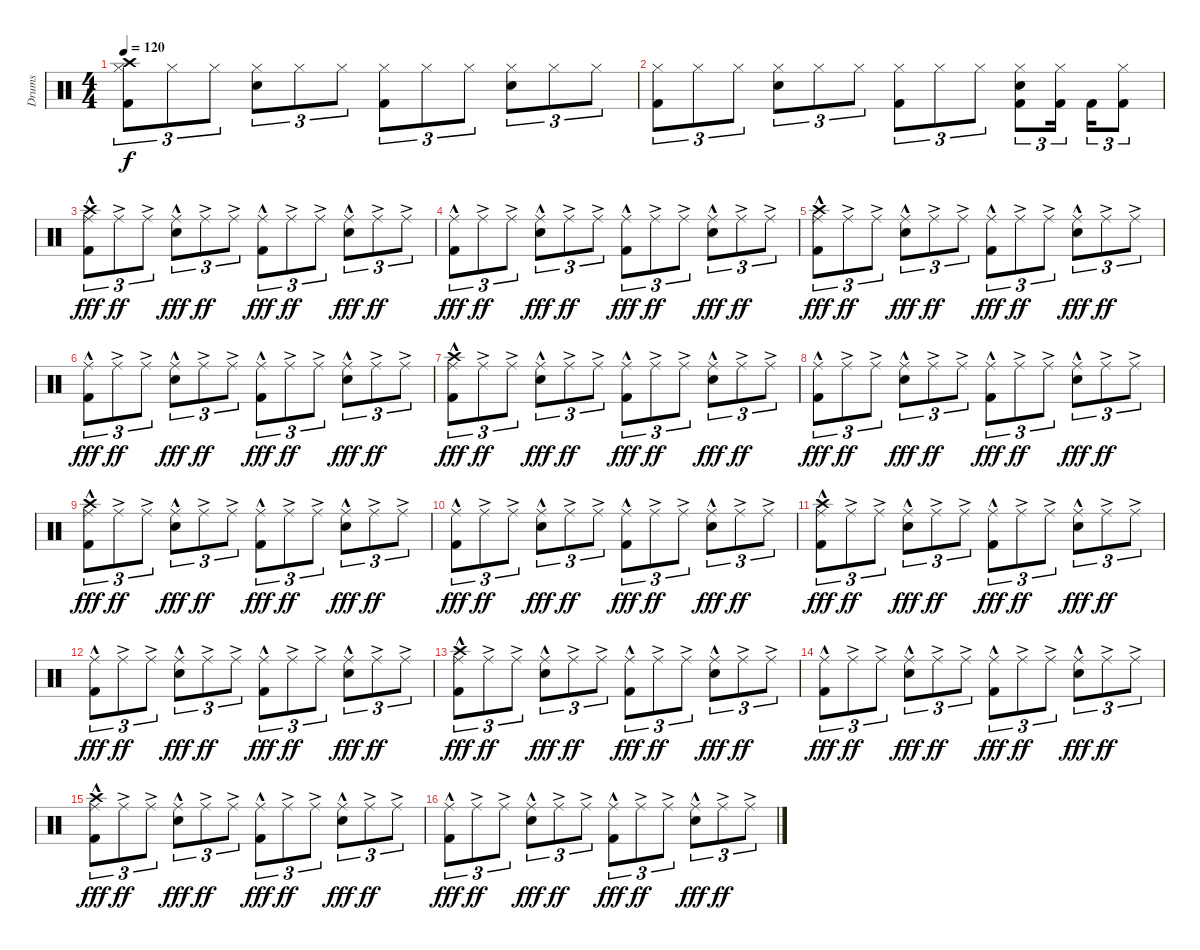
\track ("Drums" "Drums") {instrument percussion}
\staff {score}
\articulation defaults
\ts (4 4)
\tempo 120
\clef neutral
\ks c
("Kick (hit) 2" "Crash high (hit)" "Hi-Hat (closed)").8{tu (3 2) dy f} "Hi-Hat (closed)".8{tu (3 2)} "Hi-Hat (closed)".8{tu (3 2)} ("Snare (hit) 2" "Hi-Hat (closed)").8{tu (3 2)} "Hi-Hat (closed)".8{tu (3 2)} "Hi-Hat (closed)".8{tu (3 2)} ("Kick (hit) 2" "Hi-Hat (closed)").8{tu (3 2)} "Hi-Hat (closed)".8{tu (3 2)} "Hi-Hat (closed)".8{tu (3 2)} ("Snare (hit) 2" "Hi-Hat (closed)").8{tu (3 2)} "Hi-Hat (closed)".8{tu (3 2)} "Hi-Hat (closed)".8{tu (3 2)} |
("Kick (hit) 2" "Hi-Hat (closed)").8{tu (3 2)} "Hi-Hat (closed)".8{tu (3 2)} "Hi-Hat (closed)".8{tu (3 2)} ("Snare (hit) 2" "Hi-Hat (closed)").8{tu (3 2)} "Hi-Hat (closed)".8{tu (3 2)} "Hi-Hat (closed)".8{tu (3 2)} ("Kick (hit) 2" "Hi-Hat (closed)").8{tu (3 2)} "Hi-Hat (closed)".8{tu (3 2)} "Hi-Hat (closed)".8{tu (3 2)} ("Kick (hit) 2" "Snare (hit) 2" "Hi-Hat (closed)").8{tu (3 2)} ("Kick (hit) 2" "Hi-Hat (closed)").16{tu (3 2) beam splitsecondary} "Kick (hit) 2".16{tu (3 2)} ("Kick (hit) 2" "Hi-Hat (closed)").8{tu (3 2)} |
("Kick (hit) 2" "Crash high (hit)" "Ride (middle)"{hac}).8{tu (3 2) dy fff} "Ride (middle)"{ac}.8{tu (3 2) dy ff} "Ride (middle)"{ac}.8{tu (3 2)} ("Snare (hit) 2" "Ride (middle)"{hac}).8{tu (3 2) dy fff} "Ride (middle)"{ac}.8{tu (3 2) dy ff} "Ride (middle)"{ac}.8{tu (3 2)} ("Kick (hit) 2" "Ride (middle)"{hac}).8{tu (3 2) dy fff} "Ride (middle)"{ac}.8{tu (3 2) dy ff} "Ride (middle)"{ac}.8{tu (3 2)} ("Snare (hit) 2" "Ride (middle)"{hac}).8{tu (3 2) dy fff} "Ride (middle)"{ac}.8{tu (3 2) dy ff} "Ride (middle)"{ac}.8{tu (3 2)} |
("Kick (hit) 2" "Ride (middle)"{hac}).8{tu (3 2) dy fff} "Ride (middle)"{ac}.8{tu (3 2) dy ff} "Ride (middle)"{ac}.8{tu (3 2)} ("Snare (hit) 2" "Ride (middle)"{hac}).8{tu (3 2) dy fff} "Ride (middle)"{ac}.8{tu (3 2) dy ff} "Ride (middle)"{ac}.8{tu (3 2)} ("Kick (hit) 2" "Ride (middle)"{hac}).8{tu (3 2) dy fff} "Ride (middle)"{ac}.8{tu (3 2) dy ff} "Ride (middle)"{ac}.8{tu (3 2)} ("Snare (hit) 2" "Ride (middle)"{hac}).8{tu (3 2) dy fff} "Ride (middle)"{ac}.8{tu (3 2) dy ff} "Ride (middle)"{ac}.8{tu (3 2)} |
("Kick (hit) 2" "Crash high (hit)" "Ride (middle)"{hac}).8{tu (3 2) dy fff} "Ride (middle)"{ac}.8{tu (3 2) dy ff} "Ride (middle)"{ac}.8{tu (3 2)} ("Snare (hit) 2" "Ride (middle)"{hac}).8{tu (3 2) dy fff} "Ride (middle)"{ac}.8{tu (3 2) dy ff} "Ride (middle)"{ac}.8{tu (3 2)} ("Kick (hit) 2" "Ride (middle)"{hac}).8{tu (3 2) dy fff} "Ride (middle)"{ac}.8{tu (3 2) dy ff} "Ride (middle)"{ac}.8{tu (3 2)} ("Snare (hit) 2" "Ride (middle)"{hac}).8{tu (3 2) dy fff} "Ride (middle)"{ac}.8{tu (3 2) dy ff} "Ride (middle)"{ac}.8{tu (3 2)} |
("Kick (hit) 2" "Ride (middle)"{hac}).8{tu (3 2) dy fff} "Ride (middle)"{ac}.8{tu (3 2) dy ff} "Ride (middle)"{ac}.8{tu (3 2)} ("Snare (hit) 2" "Ride (middle)"{hac}).8{tu (3 2) dy fff} "Ride (middle)"{ac}.8{tu (3 2) dy ff} "Ride (middle)"{ac}.8{tu (3 2)} ("Kick (hit) 2" "Ride (middle)"{hac}).8{tu (3 2) dy fff} "Ride (middle)"{ac}.8{tu (3 2) dy ff} "Ride (middle)"{ac}.8{tu (3 2)} ("Snare (hit) 2" "Ride (middle)"{hac}).8{tu (3 2) dy fff} "Ride (middle)"{ac}.8{tu (3 2) dy ff} "Ride (middle)"{ac}.8{tu (3 2)} |
("Kick (hit) 2" "Crash high (hit)" "Ride (middle)"{hac}).8{tu (3 2) dy fff} "Ride (middle)"{ac}.8{tu (3 2) dy ff} "Ride (middle)"{ac}.8{tu (3 2)} ("Snare (hit) 2" "Ride (middle)"{hac}).8{tu (3 2) dy fff} "Ride (middle)"{ac}.8{tu (3 2) dy ff} "Ride (middle)"{ac}.8{tu (3 2)} ("Kick (hit) 2" "Ride (middle)"{hac}).8{tu (3 2) dy fff} "Ride (middle)"{ac}.8{tu (3 2) dy ff} "Ride (middle)"{ac}.8{tu (3 2)} ("Snare (hit) 2" "Ride (middle)"{hac}).8{tu (3 2) dy fff} "Ride (middle)"{ac}.8{tu (3 2) dy ff} "Ride (middle)"{ac}.8{tu (3 2)} |
("Kick (hit) 2" "Ride (middle)"{hac}).8{tu (3 2) dy fff} "Ride (middle)"{ac}.8{tu (3 2) dy ff} "Ride (middle)"{ac}.8{tu (3 2)} ("Snare (hit) 2" "Ride (middle)"{hac}).8{tu (3 2) dy fff} "Ride (middle)"{ac}.8{tu (3 2) dy ff} "Ride (middle)"{ac}.8{tu (3 2)} ("Kick (hit) 2" "Ride (middle)"{hac}).8{tu (3 2) dy fff} "Ride (middle)"{ac}.8{tu (3 2) dy ff} "Ride (middle)"{ac}.8{tu (3 2)} ("Snare (hit) 2" "Ride (middle)"{hac}).8{tu (3 2) dy fff} "Ride (middle)"{ac}.8{tu (3 2) dy ff} "Ride (middle)"{ac}.8{tu (3 2)} |
("Kick (hit) 2" "Crash high (hit)" "Ride (middle)"{hac}).8{tu (3 2) dy fff} "Ride (middle)"{ac}.8{tu (3 2) dy ff} "Ride (middle)"{ac}.8{tu (3 2)} ("Snare (hit) 2" "Ride (middle)"{hac}).8{tu (3 2) dy fff} "Ride (middle)"{ac}.8{tu (3 2) dy ff} "Ride (middle)"{ac}.8{tu (3 2)} ("Kick (hit) 2" "Ride (middle)"{hac}).8{tu (3 2) dy fff} "Ride (middle)"{ac}.8{tu (3 2) dy ff} "Ride (middle)"{ac}.8{tu (3 2)} ("Snare (hit) 2" "Ride (middle)"{hac}).8{tu (3 2) dy fff} "Ride (middle)"{ac}.8{tu (3 2) dy ff} "Ride (middle)"{ac}.8{tu (3 2)} |
("Kick (hit) 2" "Ride (middle)"{hac}).8{tu (3 2) dy fff} "Ride (middle)"{ac}.8{tu (3 2) dy ff} "Ride (middle)"{ac}.8{tu (3 2)} ("Snare (hit) 2" "Ride (middle)"{hac}).8{tu (3 2) dy fff} "Ride (middle)"{ac}.8{tu (3 2) dy ff} "Ride (middle)"{ac}.8{tu (3 2)} ("Kick (hit) 2" "Ride (middle)"{hac}).8{tu (3 2) dy fff} "Ride (middle)"{ac}.8{tu (3 2) dy ff} "Ride (middle)"{ac}.8{tu (3 2)} ("Snare (hit) 2" "Ride (middle)"{hac}).8{tu (3 2) dy fff} "Ride (middle)"{ac}.8{tu (3 2) dy ff} "Ride (middle)"{ac}.8{tu (3 2)} |
("Kick (hit) 2" "Crash high (hit)" "Ride (middle)"{hac}).8{tu (3 2) dy fff} "Ride (middle)"{ac}.8{tu (3 2) dy ff} "Ride (middle)"{ac}.8{tu (3 2)} ("Snare (hit) 2" "Ride (middle)"{hac}).8{tu (3 2) dy fff} "Ride (middle)"{ac}.8{tu (3 2) dy ff} "Ride (middle)"{ac}.8{tu (3 2)} ("Kick (hit) 2" "Ride (middle)"{hac}).8{tu (3 2) dy fff} "Ride (middle)"{ac}.8{tu (3 2) dy ff} "Ride (middle)"{ac}.8{tu (3 2)} ("Snare (hit) 2" "Ride (middle)"{hac}).8{tu (3 2) dy fff} "Ride (middle)"{ac}.8{tu (3 2) dy ff} "Ride (middle)"{ac}.8{tu (3 2)} |
("Kick (hit) 2" "Ride (middle)"{hac}).8{tu (3 2) dy fff} "Ride (middle)"{ac}.8{tu (3 2) dy ff} "Ride (middle)"{ac}.8{tu (3 2)} ("Snare (hit) 2" "Ride (middle)"{hac}).8{tu (3 2) dy fff} "Ride (middle)"{ac}.8{tu (3 2) dy ff} "Ride (middle)"{ac}.8{tu (3 2)} ("Kick (hit) 2" "Ride (middle)"{hac}).8{tu (3 2) dy fff} "Ride (middle)"{ac}.8{tu (3 2) dy ff} "Ride (middle)"{ac}.8{tu (3 2)} ("Snare (hit) 2" "Ride (middle)"{hac}).8{tu (3 2) dy fff} "Ride (middle)"{ac}.8{tu (3 2) dy ff} "Ride (middle)"{ac}.8{tu (3 2)} |
("Kick (hit) 2" "Crash high (hit)" "Ride (middle)"{hac}).8{tu (3 2) dy fff} "Ride (middle)"{ac}.8{tu (3 2) dy ff} "Ride (middle)"{ac}.8{tu (3 2)} ("Snare (hit) 2" "Ride (middle)"{hac}).8{tu (3 2) dy fff} "Ride (middle)"{ac}.8{tu (3 2) dy ff} "Ride (middle)"{ac}.8{tu (3 2)} ("Kick (hit) 2" "Ride (middle)"{hac}).8{tu (3 2) dy fff} "Ride (middle)"{ac}.8{tu (3 2) dy ff} "Ride (middle)"{ac}.8{tu (3 2)} ("Snare (hit) 2" "Ride (middle)"{hac}).8{tu (3 2) dy fff} "Ride (middle)"{ac}.8{tu (3 2) dy ff} "Ride (middle)"{ac}.8{tu (3 2)} |
("Kick (hit) 2" "Ride (middle)"{hac}).8{tu (3 2) dy fff} "Ride (middle)"{ac}.8{tu (3 2) dy ff} "Ride (middle)"{ac}.8{tu (3 2)} ("Snare (hit) 2" "Ride (middle)"{hac}).8{tu (3 2) dy fff} "Ride (middle)"{ac}.8{tu (3 2) dy ff} "Ride (middle)"{ac}.8{tu (3 2)} ("Kick (hit) 2" "Ride (middle)"{hac}).8{tu (3 2) dy fff} "Ride (middle)"{ac}.8{tu (3 2) dy ff} "Ride (middle)"{ac}.8{tu (3 2)} ("Snare (hit) 2" "Ride (middle)"{hac}).8{tu (3 2) dy fff} "Ride (middle)"{ac}.8{tu (3 2) dy ff} "Ride (middle)"{ac}.8{tu (3 2)} |
("Kick (hit) 2" "Crash high (hit)" "Ride (middle)"{hac}).8{tu (3 2) dy fff} "Ride (middle)"{ac}.8{tu (3 2) dy ff} "Ride (middle)"{ac}.8{tu (3 2)} ("Snare (hit) 2" "Ride (middle)"{hac}).8{tu (3 2) dy fff} "Ride (middle)"{ac}.8{tu (3 2) dy ff} "Ride (middle)"{ac}.8{tu (3 2)} ("Kick (hit) 2" "Ride (middle)"{hac}).8{tu (3 2) dy fff} "Ride (middle)"{ac}.8{tu (3 2) dy ff} "Ride (middle)"{ac}.8{tu (3 2)} ("Snare (hit) 2" "Ride (middle)"{hac}).8{tu (3 2) dy fff} "Ride (middle)"{ac}.8{tu (3 2) dy ff} "Ride (middle)"{ac}.8{tu (3 2)} |
("Kick (hit) 2" "Ride (middle)"{hac}).8{tu (3 2) dy fff} "Ride (middle)"{ac}.8{tu (3 2) dy ff} "Ride (middle)"{ac}.8{tu (3 2)} ("Snare (hit) 2" "Ride (middle)"{hac}).8{tu (3 2) dy fff} "Ride (middle)"{ac}.8{tu (3 2) dy ff} "Ride (middle)"{ac}.8{tu (3 2)} ("Kick (hit) 2" "Ride (middle)"{hac}).8{tu (3 2) dy fff} "Ride (middle)"{ac}.8{tu (3 2) dy ff} "Ride (middle)"{ac}.8{tu (3 2)} ("Snare (hit) 2" "Ride (middle)"{hac}).8{tu (3 2) dy fff} "Ride (middle)"{ac}.8{tu (3 2) dy ff} "Ride (middle)"{ac}.8{tu (3 2)}
